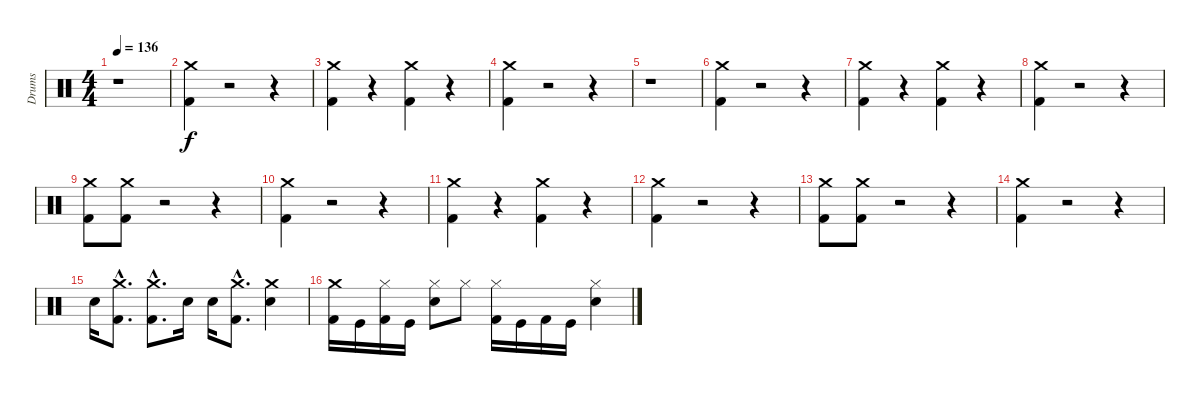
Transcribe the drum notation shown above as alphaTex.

\track ("Drums" "Drums") {instrument percussion}
\staff {score}
\articulation defaults
\ts (4 4)
\tempo 136
\clef neutral
\ks c
r.1{dy f} |
("Kick (hit) 2" "Crash medium (hit)").4 r.2 r.4 |
("Crash medium (hit)" "Kick (hit) 2").4 r.4 ("Crash medium (hit)" "Kick (hit) 2").4 r.4 |
("Kick (hit) 2" "Crash medium (hit)").4 r.2 r.4 |
r.1 |
("Kick (hit) 2" "Crash medium (hit)").4 r.2 r.4 |
("Crash medium (hit)" "Kick (hit) 2").4 r.4 ("Crash medium (hit)" "Kick (hit) 2").4 r.4 |
("Kick (hit) 2" "Crash medium (hit)").4 r.2 r.4 |
("Kick (hit) 2" "Crash medium (hit)").8 ("Kick (hit) 2" "Crash medium (hit)").8 r.2 r.4 |
("Kick (hit) 2" "Crash medium (hit)").4 r.2 r.4 |
("Crash medium (hit)" "Kick (hit) 2").4 r.4 ("Crash medium (hit)" "Kick (hit) 2").4 r.4 |
("Kick (hit) 2" "Crash medium (hit)").4 r.2 r.4 |
("Kick (hit) 2" "Crash medium (hit)").8 ("Kick (hit) 2" "Crash medium (hit)").8 r.2 r.4 |
("Kick (hit) 2" "Crash medium (hit)").4 r.2 r.4 |
"Snare (hit) 2".16 ("Kick (hit) 2"{hac} "Crash medium (hit)"{hac}).8{d} ("Kick (hit) 2"{hac} "Crash medium (hit)"{hac}).8{d} "Snare (hit) 2".16 "Snare (hit) 2".16 ("Kick (hit) 2"{hac} "Crash medium (hit)"{hac}).8{d} ("Crash medium (hit)" "Snare (hit) 2").4 |
("Crash medium (hit)" "Kick (hit) 2").16 "Kick (hit)".16 ("Hi-Hat (closed)" "Kick (hit) 2").16 "Kick (hit)".16 ("Snare (hit) 2" "Hi-Hat (closed)").8 "Hi-Hat (closed)".8 ("Hi-Hat (closed)" "Kick (hit) 2").16 "Kick (hit)".16 "Kick (hit) 2".16 "Kick (hit)".16 ("Snare (hit) 2" "Hi-Hat (closed)").4
